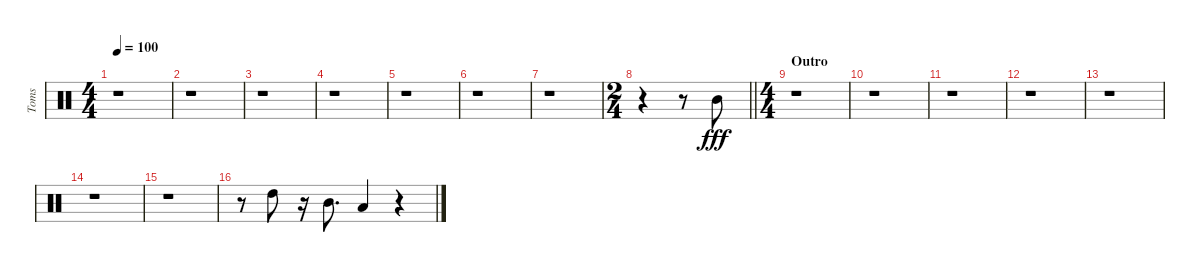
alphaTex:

\track ("Toms" "Toms") {instrument percussion}
\staff {score}
\articulation defaults
\ts (4 4)
\tempo 100
\clef neutral
\ks c
r.1{dy ff} |
r.1 |
r.1 |
r.1 |
r.1 |
\ks aminor
r.1 |
r.1 |
\ts (2 4)
\barLineRight lightlight
r.4{beam split} r.8 "Mid Tom (hit)".8{dy fff balance 8} |
\ts (4 4)
\section ("" "Outro")
r.1 |
r.1 |
r.1 |
r.1 |
r.1 |
r.1 |
r.1 |
r.8 "High Tom (hit)".8{balance 11} r.16 "Mid Tom (hit)".8{d balance 8} "Low Tom (hit)".4{balance 5} r.4
